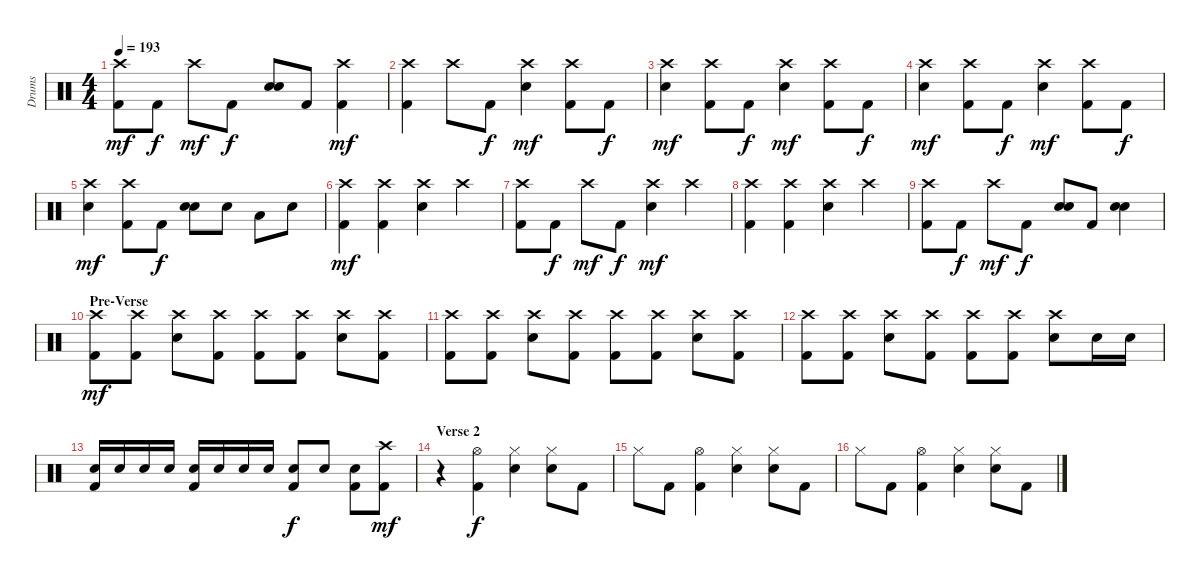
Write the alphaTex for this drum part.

\track ("Drums" "Drums") {instrument percussion}
\staff {score}
\articulation defaults
\ts (4 4)
\tempo 193
\clef neutral
\ks c
("Crash high (hit)" "Kick (hit) 2").8{dy mf} "Kick (hit) 2".8{dy f} "Crash high (hit)".8{dy mf} "Kick (hit) 2".8{dy f} ("Electric Snare (hit)" "Electric Snare (hit)").8{bd 120} "Kick (hit) 2".8 ("Crash high (hit)" "Kick (hit) 2").4{dy mf} |
("Crash high (hit)" "Kick (hit) 2").4 "Crash high (hit)".8 "Kick (hit) 2".8{dy f} ("Crash high (hit)" "Electric Snare (hit)").4{dy mf} ("Crash high (hit)" "Kick (hit) 2").8 "Kick (hit) 2".8{dy f} |
("Crash high (hit)" "Electric Snare (hit)").4{dy mf} ("Crash high (hit)" "Kick (hit) 2").8 "Kick (hit) 2".8{dy f} ("Crash high (hit)" "Electric Snare (hit)").4{dy mf} ("Crash high (hit)" "Kick (hit) 2").8 "Kick (hit) 2".8{dy f} |
("Crash high (hit)" "Electric Snare (hit)").4{dy mf} ("Crash high (hit)" "Kick (hit) 2").8 "Kick (hit) 2".8{dy f} ("Crash high (hit)" "Electric Snare (hit)").4{dy mf} ("Crash high (hit)" "Kick (hit) 2").8 "Kick (hit) 2".8{dy f} |
("Crash high (hit)" "Electric Snare (hit)").4{dy mf} ("Crash high (hit)" "Kick (hit) 2").8 "Kick (hit) 2".8{dy f} ("Electric Snare (hit)" "Electric Snare (hit)").8{bd 120} "Electric Snare (hit)".8 "Low Tom (hit)".8 "Electric Snare (hit)".8 |
("Crash high (hit)" "Kick (hit) 2").4{dy mf} ("Crash high (hit)" "Kick (hit) 2").4 ("Crash high (hit)" "Electric Snare (hit)").4 "Crash high (hit)".4 |
("Crash high (hit)" "Kick (hit) 2").8 "Kick (hit) 2".8{dy f} "Crash high (hit)".8{dy mf} "Kick (hit) 2".8{dy f} ("Crash high (hit)" "Electric Snare (hit)").4{dy mf} "Crash high (hit)".4 |
("Crash high (hit)" "Kick (hit) 2").4 ("Crash high (hit)" "Kick (hit) 2").4 ("Crash high (hit)" "Electric Snare (hit)").4 "Crash high (hit)".4 |
("Crash high (hit)" "Kick (hit) 2").8 "Kick (hit) 2".8{dy f} "Crash high (hit)".8{dy mf} "Kick (hit) 2".8{dy f} ("Electric Snare (hit)" "Electric Snare (hit)").8{bd 120} "Kick (hit) 2".8 ("Electric Snare (hit)" "Electric Snare (hit)").4{bd 120} |
\section ("" "Pre-Verse")
("Crash high (hit)" "Kick (hit) 2").8{dy mf} ("Crash high (hit)" "Kick (hit) 2").8 ("Crash high (hit)" "Electric Snare (hit)").8 ("Crash high (hit)" "Kick (hit) 2").8 ("Crash high (hit)" "Kick (hit) 2").8 ("Crash high (hit)" "Kick (hit) 2").8 ("Crash high (hit)" "Electric Snare (hit)").8 ("Crash high (hit)" "Kick (hit) 2").8 |
("Crash high (hit)" "Kick (hit) 2").8 ("Crash high (hit)" "Kick (hit) 2").8 ("Crash high (hit)" "Electric Snare (hit)").8 ("Crash high (hit)" "Kick (hit) 2").8 ("Crash high (hit)" "Kick (hit) 2").8 ("Crash high (hit)" "Kick (hit) 2").8 ("Crash high (hit)" "Electric Snare (hit)").8 ("Crash high (hit)" "Kick (hit) 2").8 |
("Crash high (hit)" "Kick (hit) 2").8 ("Crash high (hit)" "Kick (hit) 2").8 ("Crash high (hit)" "Electric Snare (hit)").8 ("Crash high (hit)" "Kick (hit) 2").8 ("Crash high (hit)" "Kick (hit) 2").8 ("Crash high (hit)" "Kick (hit) 2").8 ("Crash high (hit)" "Electric Snare (hit)").8 "Electric Snare (hit)".16 "Electric Snare (hit)".16 |
("Electric Snare (hit)" "Kick (hit) 2").16 "Electric Snare (hit)".16 "Electric Snare (hit)".16 "Electric Snare (hit)".16 ("Electric Snare (hit)" "Kick (hit) 2").16 "Electric Snare (hit)".16 "Electric Snare (hit)".16 "Electric Snare (hit)".16 ("Electric Snare (hit)" "Kick (hit) 2").8{dy f} "Electric Snare (hit)".8 ("Electric Snare (hit)" "Kick (hit) 2").8 ("Crash high (hit)" "Kick (hit) 2").8{dy mf} |
\section ("" "Verse 2")
r.4 ("Hi-Hat (open)" "Kick (hit) 2").4{dy f} ("Hi-Hat (closed)" "Electric Snare (hit)").4 ("Hi-Hat (closed)" "Electric Snare (hit)").8 "Kick (hit) 2".8 |
"Hi-Hat (closed)".8 "Kick (hit) 2".8 ("Hi-Hat (open)" "Kick (hit) 2").4 ("Hi-Hat (closed)" "Electric Snare (hit)").4 ("Hi-Hat (closed)" "Electric Snare (hit)").8 "Kick (hit) 2".8 |
"Hi-Hat (closed)".8 "Kick (hit) 2".8 ("Hi-Hat (open)" "Kick (hit) 2").4 ("Hi-Hat (closed)" "Electric Snare (hit)").4 ("Hi-Hat (closed)" "Electric Snare (hit)").8 "Kick (hit) 2".8
